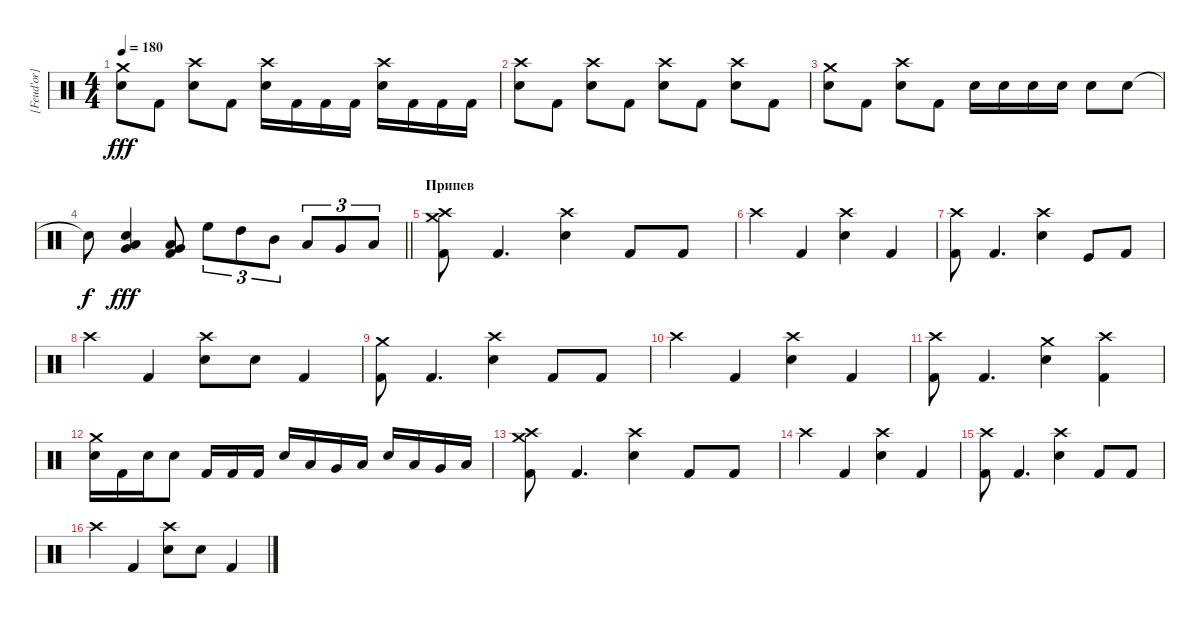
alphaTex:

\track ("[Feud'or] - Drums" "[Feud'or] ") {instrument percussion}
\staff {score}
\articulation defaults
\ts (4 4)
\tempo 180
\clef neutral
\ks c
("Crash medium (hit)" "Electric Snare (hit)").8{dy fff} "Kick (hit) 2".8 ("Crash high (hit)" "Electric Snare (hit)").8 "Kick (hit) 2".8 ("Crash high (hit)" "Electric Snare (hit)").16 "Kick (hit) 2".16 "Kick (hit) 2".16 "Kick (hit) 2".16 ("Crash high (hit)" "Electric Snare (hit)").16 "Kick (hit) 2".16 "Kick (hit) 2".16 "Kick (hit) 2".16 |
("Crash high (hit)" "Electric Snare (hit)").8 "Kick (hit) 2".8 ("Crash high (hit)" "Electric Snare (hit)").8 "Kick (hit) 2".8 ("Crash high (hit)" "Electric Snare (hit)").8 "Kick (hit) 2".8 ("Crash high (hit)" "Electric Snare (hit)").8 "Kick (hit) 2".8 |
("Crash medium (hit)" "Electric Snare (hit)").8 "Kick (hit) 2".8 ("Crash high (hit)" "Electric Snare (hit)").8 "Kick (hit) 2".8 "Electric Snare (hit)".16 "Electric Snare (hit)".16 "Electric Snare (hit)".16 "Electric Snare (hit)".16 "Electric Snare (hit)".8 "Electric Snare (hit)".8 |
\barLineRight lightlight "Snare (hit)"{t}.8{dy f}
("Low Tom (hit)" "Very Low Tom (hit)" "Snare (hit) 2").4{dy fff} ("Very Low Tom (hit)" "Low Floor Tom (hit)" "Kick (hit) 2").8 "High Floor Tom (hit)".8{tu (3 2)} "High Tom (hit)".8{tu (3 2)} "Mid Tom (hit)".8{tu (3 2)} "Low Tom (hit)".8{tu (3 2)} "Very Low Tom (hit)".8{tu (3 2)} "Low Floor Tom (hit)".8{tu (3 2)} |
\section ("" "Припев")
("Crash high (hit)" "Crash medium (hit)" "Kick (hit) 2").8 "Kick (hit) 2".4{d} ("Crash high (hit)" "Snare (hit) 2").4 "Kick (hit) 2".8 "Kick (hit) 2".8 |
"Crash high (hit)".4 "Kick (hit) 2".4 ("Crash high (hit)" "Snare (hit) 2").4 "Kick (hit) 2".4 |
("Crash high (hit)" "Kick (hit) 2").8 "Kick (hit) 2".4{d} ("Crash high (hit)" "Snare (hit) 2").4 "Kick (hit)".8 "Kick (hit) 2".8 |
"Crash high (hit)".4 "Kick (hit) 2".4 ("Crash high (hit)" "Snare (hit) 2").8 "Snare (hit) 2".8 "Kick (hit) 2".4 |
("Crash medium (hit)" "Kick (hit) 2").8 "Kick (hit) 2".4{d} ("Crash high (hit)" "Snare (hit) 2").4 "Kick (hit) 2".8 "Kick (hit) 2".8 |
"Crash high (hit)".4 "Kick (hit) 2".4 ("Crash high (hit)" "Snare (hit) 2").4 "Kick (hit) 2".4 |
("Crash high (hit)" "Kick (hit) 2").8 "Kick (hit) 2".4{d} ("Crash medium (hit)" "Snare (hit) 2").4 ("Crash high (hit)" "Kick (hit) 2").4 |
("Crash medium (hit)" "Snare (hit) 2").16 "Kick (hit) 2".16 "Snare (hit) 2".16 "Snare (hit) 2".8 "Kick (hit) 2".16 "Kick (hit) 2".16 "Kick (hit) 2".16 "Electric Snare (hit)".16 "Low Tom (hit)".16 "Very Low Tom (hit)".16 "Low Floor Tom (hit)".16 "Electric Snare (hit)".16 "Low Tom (hit)".16 "Very Low Tom (hit)".16 "Low Floor Tom (hit)".16 |
("Crash high (hit)" "Crash medium (hit)" "Kick (hit) 2").8 "Kick (hit) 2".4{d} ("Crash high (hit)" "Snare (hit) 2").4 "Kick (hit) 2".8 "Kick (hit) 2".8 |
"Crash high (hit)".4 "Kick (hit) 2".4 ("Crash high (hit)" "Snare (hit) 2").4 "Kick (hit) 2".4 |
("Crash high (hit)" "Kick (hit) 2").8 "Kick (hit) 2".4{d} ("Crash high (hit)" "Snare (hit) 2").4 "Kick (hit) 2".8 "Kick (hit) 2".8 |
"Crash high (hit)".4 "Kick (hit) 2".4 ("Crash high (hit)" "Snare (hit) 2").8 "Snare (hit) 2".8 "Kick (hit) 2".4
